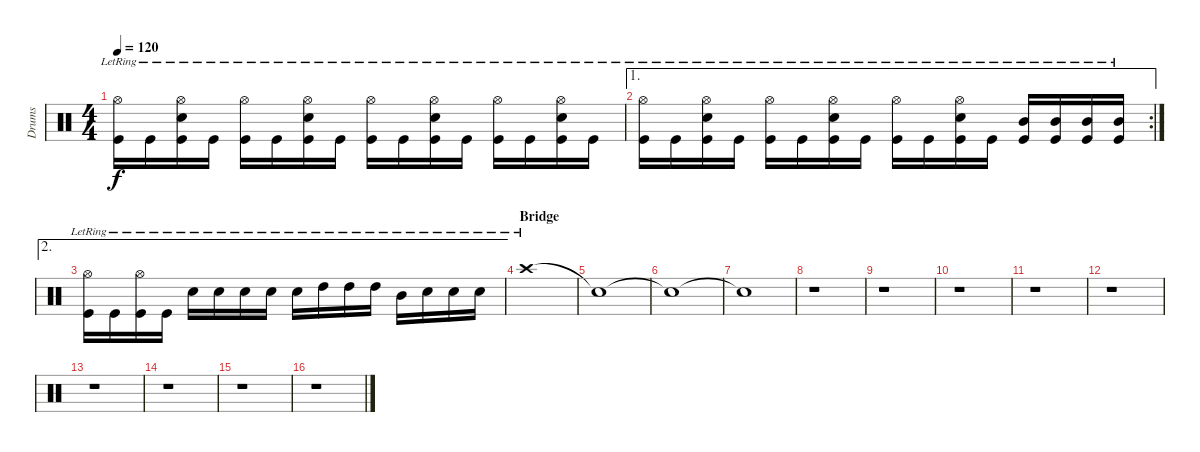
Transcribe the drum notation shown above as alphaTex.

\track ("Drums" "Drums") {instrument percussion}
\staff {score}
\articulation defaults
\ts (4 4)
\tempo 120
\clef neutral
\ks c
("Hi-Hat (open)"{lr} "Kick (hit)"{lr}).16{dy f} "Kick (hit)"{lr}.16 ("Hi-Hat (open)"{lr} "Snare (hit) 2"{lr} "Kick (hit)"{lr}).16 "Kick (hit)"{lr}.16 ("Hi-Hat (open)"{lr} "Kick (hit)"{lr}).16 "Kick (hit)"{lr}.16 ("Hi-Hat (open)"{lr} "Snare (hit) 2"{lr} "Kick (hit)"{lr}).16 "Kick (hit)"{lr}.16 ("Hi-Hat (open)"{lr} "Kick (hit)"{lr}).16 "Kick (hit)"{lr}.16 ("Hi-Hat (open)"{lr} "Snare (hit) 2"{lr} "Kick (hit)"{lr}).16 "Kick (hit)"{lr}.16 ("Hi-Hat (open)"{lr} "Kick (hit)"{lr}).16 "Kick (hit)"{lr}.16 ("Hi-Hat (open)"{lr} "Snare (hit) 2"{lr} "Kick (hit)"{lr}).16 "Kick (hit)"{lr}.16 |
\ae 1
\rc 2
("Hi-Hat (open)"{lr} "Kick (hit)"{lr}).16 "Kick (hit)"{lr}.16 ("Hi-Hat (open)"{lr} "Snare (hit) 2"{lr} "Kick (hit)"{lr}).16 "Kick (hit)"{lr}.16 ("Hi-Hat (open)"{lr} "Kick (hit)"{lr}).16 "Kick (hit)"{lr}.16 ("Hi-Hat (open)"{lr} "Snare (hit) 2"{lr} "Kick (hit)"{lr}).16 "Kick (hit)"{lr}.16 ("Hi-Hat (open)"{lr} "Kick (hit)"{lr}).16 "Kick (hit)"{lr}.16 ("Hi-Hat (open)"{lr} "Snare (hit) 2"{lr} "Kick (hit)"{lr}).16 "Kick (hit)"{lr}.16 ("Mid Tom (hit)"{lr} "Kick (hit)"{lr}).16 ("Mid Tom (hit)"{lr} "Kick (hit)"{lr}).16 ("Mid Tom (hit)"{lr} "Kick (hit)"{lr}).16 ("Mid Tom (hit)"{lr} "Kick (hit)"{lr}).16 |
\ae 2
("Hi-Hat (open)"{lr} "Kick (hit)"{lr}).16 "Kick (hit)"{lr}.16 ("Hi-Hat (open)"{lr} "Kick (hit)"{lr}).16 "Kick (hit)"{lr}.16 "Snare (hit) 2"{lr}.16 "Snare (hit) 2"{lr}.16 "Snare (hit) 2"{lr}.16 "Snare (hit) 2"{lr}.16 "Snare (hit) 2"{lr}.16 "High Tom (hit)"{lr}.16 "High Tom (hit)"{lr}.16 "High Tom (hit)"{lr}.16 "Mid Tom (hit)"{lr}.16 "Snare (hit) 2"{lr}.16 "Snare (hit) 2"{lr}.16 "Snare (hit) 2"{lr}.16 |
\section ("" "Bridge")
"Crash high (hit)"{lr}.1 |
"Snare (hit)"{t}.1 |
"Snare (hit)"{t}.1 |
"Snare (hit)"{t}.1 |
r.1 |
r.1 |
r.1 |
r.1 |
r.1 |
r.1 |
r.1 |
r.1 |
r.1
